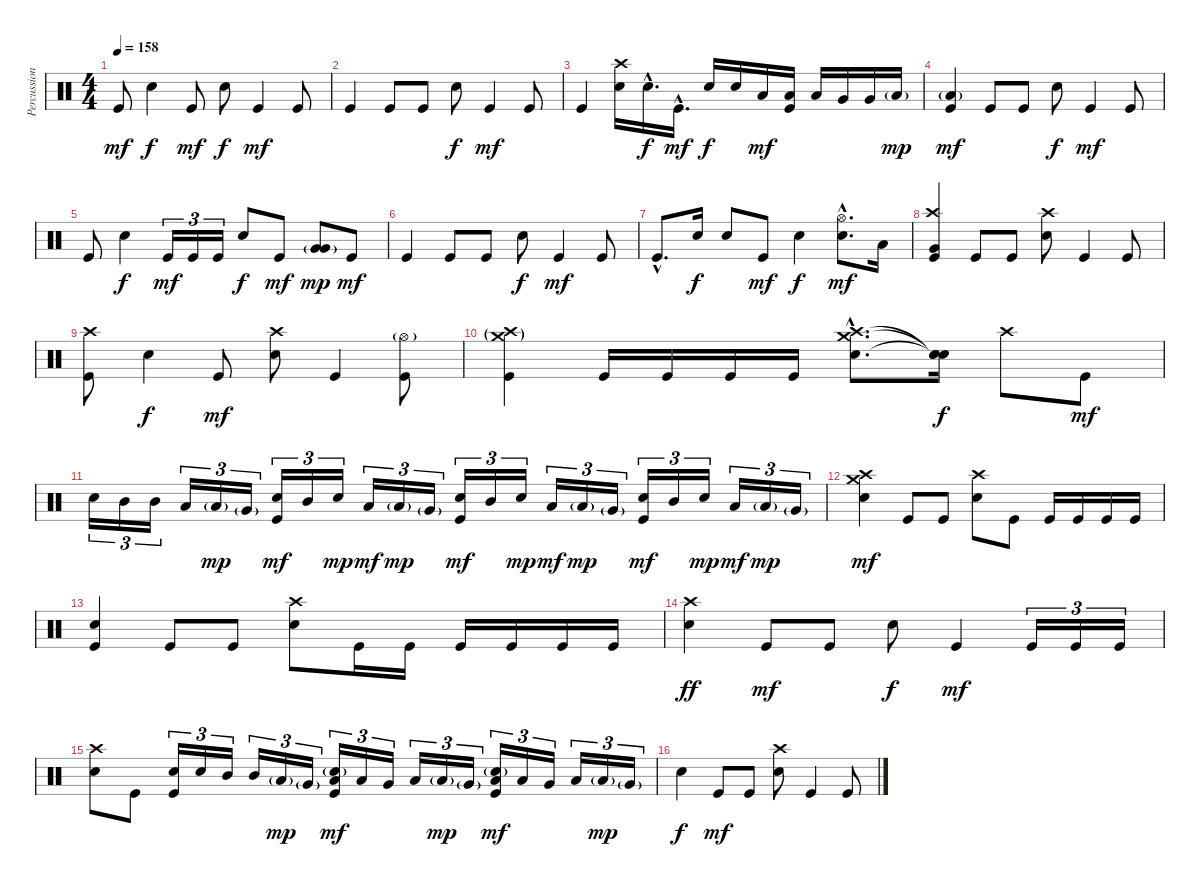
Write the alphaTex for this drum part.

\track ("Percussion" "Percussion") {instrument percussion}
\staff {score}
\articulation defaults
\ts (4 4)
\tempo 158
\clef neutral
\ks c "Kick (hit)".8{dy mf} "Electric Snare (hit)".4{dy f} "Kick (hit)".8{dy mf} "Electric Snare (hit)".8{dy f} "Kick (hit)".4{dy mf} "Kick (hit)".8
|
"Kick (hit)".4 "Kick (hit)".8 "Kick (hit)".8 "Electric Snare (hit)".8{dy f} "Kick (hit)".4{dy mf} "Kick (hit)".8 |
"Kick (hit)".4 ("Crash high (hit)" "Electric Snare (hit)").16 "Electric Snare (hit)"{hac}.16{d dy f} "Kick (hit)"{hac}.16{d dy mf} "Electric Snare (hit)".16{dy f} "Electric Snare (hit)".16 "Low Tom (hit)".16{dy mf} ("Low Tom (hit)" "Kick (hit)").16 "Low Tom (hit)".16 "Very Low Tom (hit)".16 "Very Low Tom (hit)".16 "Low Floor Tom (hit)"{g}.16{dy mp} |
("Low Floor Tom (hit)"{g} "Kick (hit)").4{dy mf} "Kick (hit)".8 "Kick (hit)".8 "Electric Snare (hit)".8{dy f} "Kick (hit)".4{dy mf} "Kick (hit)".8 |
"Kick (hit)".8 "Electric Snare (hit)".4{dy f} "Kick (hit)".16{tu (3 2) dy mf} "Kick (hit)".16{tu (3 2)} "Kick (hit)".16{tu (3 2)} "Electric Snare (hit)".8{dy f} "Kick (hit)".8{dy mf} ("Very Low Tom (hit)"{g} "Very Low Tom (hit)").8{dy mp} "Kick (hit)".8{dy mf} |
"Kick (hit)".4 "Kick (hit)".8 "Kick (hit)".8 "Electric Snare (hit)".8{dy f} "Kick (hit)".4{dy mf} "Kick (hit)".8 |
"Kick (hit)"{hac}.8{d} "Electric Snare (hit)".16{dy f} "Electric Snare (hit)".8 "Kick (hit)".8{dy mf} "Electric Snare (hit)".4{dy f} ("Hi-Hat (open)"{hac} "Electric Snare (hit)"{hac}).8{d dy mf} "Low Tom (hit)".16 |
("Crash high (hit)" "Very Low Tom (hit)" "Kick (hit)").4 "Kick (hit)".8 "Kick (hit)".8 ("Crash high (hit)" "Electric Snare (hit)").8 "Kick (hit)".4 "Kick (hit)".8 |
("Crash high (hit)" "Kick (hit)").8 "Electric Snare (hit)".4{dy f} "Kick (hit)".8{dy mf} ("Crash high (hit)" "Electric Snare (hit)").8 "Kick (hit)".4 ("Hi-Hat (open)"{g} "Kick (hit)").8 |
("Crash medium (hit)"{g} "Crash high (hit)"{g} "Kick (hit)").4 "Kick (hit)".16 "Kick (hit)".16 "Kick (hit)".16 "Kick (hit)".16 ("Crash medium (hit)"{hac} "Crash high (hit)"{hac} "Electric Snare (hit)"{hac}).8{d} ("Snare (hit)"{t} "Snare (hit)"{t} "Snare (hit)"{t}).16{dy f} "Crash high (hit)".8 "Kick (hit)".8{dy mf} |
"Electric Snare (hit)".16{tu (3 2) volume 16} "Mid Tom (hit)".16{tu (3 2)} "Mid Tom (hit)".16{tu (3 2)} "Low Tom (hit)".16{tu (3 2)} "Low Tom (hit)"{g}.16{tu (3 2) dy mp} "Very Low Tom (hit)"{g}.16{tu (3 2)} ("Electric Snare (hit)" "Kick (hit)").16{tu (3 2) dy mf} "Mid Tom (hit)".16{tu (3 2)} "Electric Snare (hit)".16{tu (3 2) dy mp} "Low Tom (hit)".16{tu (3 2) dy mf} "Low Tom (hit)"{g}.16{tu (3 2) dy mp} "Very Low Tom (hit)"{g}.16{tu (3 2)} ("Electric Snare (hit)" "Kick (hit)").16{tu (3 2) dy mf} "Mid Tom (hit)".16{tu (3 2)} "Electric Snare (hit)".16{tu (3 2) dy mp} "Low Tom (hit)".16{tu (3 2) dy mf} "Low Tom (hit)"{g}.16{tu (3 2) dy mp} "Very Low Tom (hit)"{g}.16{tu (3 2)} ("Electric Snare (hit)" "Kick (hit)").16{tu (3 2) dy mf} "Mid Tom (hit)".16{tu (3 2)} "Electric Snare (hit)".16{tu (3 2) dy mp} "Low Tom (hit)".16{tu (3 2) dy mf} "Low Tom (hit)"{g}.16{tu (3 2) dy mp} "Very Low Tom (hit)"{g}.16{tu (3 2)} |
("Crash medium (hit)" "Crash high (hit)" "Electric Snare (hit)").4{dy mf volume 14} "Kick (hit)".8 "Kick (hit)".8 ("Crash high (hit)" "Electric Snare (hit)").8 "Kick (hit)".8 "Kick (hit)".16 "Kick (hit)".16 "Kick (hit)".16 "Kick (hit)".16 |
("Electric Snare (hit)" "Kick (hit)").4 "Kick (hit)".8 "Kick (hit)".8 ("Crash high (hit)" "Electric Snare (hit)").8 "Kick (hit)".16 "Kick (hit)".16 "Kick (hit)".16 "Kick (hit)".16 "Kick (hit)".16 "Kick (hit)".16 |
("Crash high (hit)" "Electric Snare (hit)").4{dy ff} "Kick (hit)".8{dy mf} "Kick (hit)".8 "Electric Snare (hit)".8{dy f} "Kick (hit)".4{dy mf} "Kick (hit)".16{tu (3 2)} "Kick (hit)".16{tu (3 2)} "Kick (hit)".16{tu (3 2)} |
("Crash high (hit)" "Electric Snare (hit)").8 "Kick (hit)".8 ("Electric Snare (hit)" "Kick (hit)").16{tu (3 2) volume 16} "Electric Snare (hit)".16{tu (3 2)} "Mid Tom (hit)".16{tu (3 2)} "Mid Tom (hit)".16{tu (3 2)} "Low Tom (hit)"{g}.16{tu (3 2) dy mp} "Very Low Tom (hit)"{g}.16{tu (3 2)} ("Electric Snare (hit)"{g} "Low Tom (hit)" "Kick (hit)").16{tu (3 2) dy mf} "Low Tom (hit)".16{tu (3 2)} "Very Low Tom (hit)".16{tu (3 2)} "Low Tom (hit)".16{tu (3 2)} "Low Tom (hit)"{g}.16{tu (3 2) dy mp} "Very Low Tom (hit)"{g}.16{tu (3 2)} ("Electric Snare (hit)"{g} "Low Tom (hit)" "Kick (hit)").16{tu (3 2) dy mf} "Low Tom (hit)".16{tu (3 2)} "Very Low Tom (hit)".16{tu (3 2)} "Low Tom (hit)".16{tu (3 2)} "Low Tom (hit)"{g}.16{tu (3 2) dy mp} "Very Low Tom (hit)"{g}.16{tu (3 2)} |
"Electric Snare (hit)".4{dy f} "Kick (hit)".8{dy mf} "Kick (hit)".8 ("Crash high (hit)" "Electric Snare (hit)").8 "Kick (hit)".4 "Kick (hit)".8
